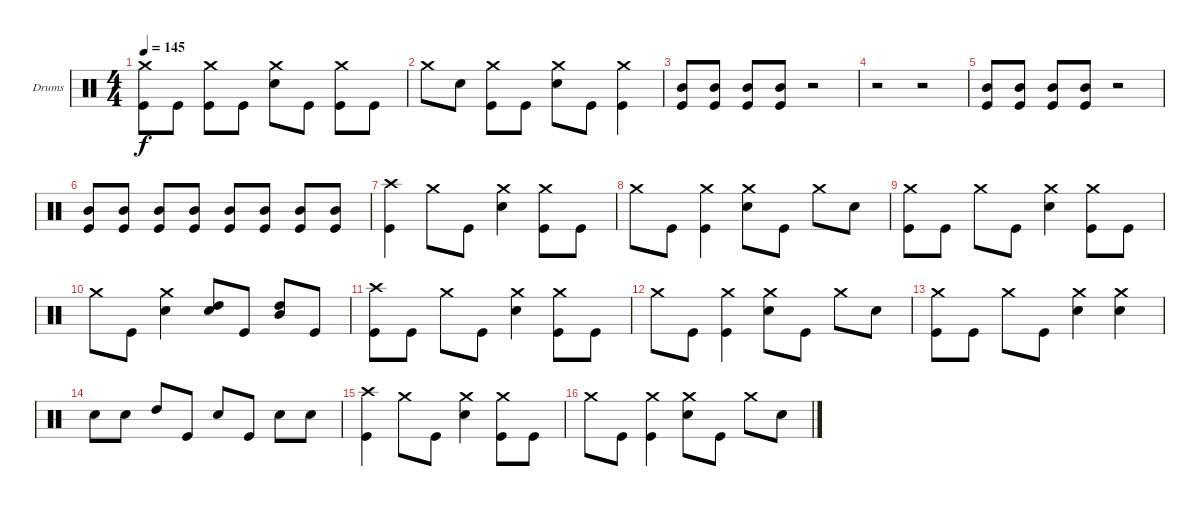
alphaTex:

\bracketExtendMode groupsimilarinstruments
\firstSystemTrackNameOrientation horizontal
\otherSystemsTrackNameOrientation horizontal
\track ("Drumkit" "Drums") {instrument percussion}
\staff {score}
\articulation defaults
\ts (4 4)
\tempo 145
\clef neutral
\ks c
("Kick (hit)" "Crash medium (hit)").8{dy f} "Kick (hit)".8 ("Kick (hit)" "Crash medium (hit)").8 "Kick (hit)".8 ("Snare (hit) 2" "Crash medium (hit)").8 "Kick (hit)".8 ("Kick (hit)" "Crash medium (hit)").8 "Kick (hit)".8 |
"Crash medium (hit)".8 "Snare (hit) 2".8 ("Crash medium (hit)" "Kick (hit)").8 "Kick (hit)".8 ("Crash medium (hit)" "Snare (hit) 2").8 "Kick (hit)".8 ("Crash medium (hit)" "Kick (hit)").4 |
("Mid Tom (hit)" "Kick (hit)").8 ("Mid Tom (hit)" "Kick (hit)").8 ("Mid Tom (hit)" "Kick (hit)").8 ("Mid Tom (hit)" "Kick (hit)").8 r.2 |
r.2 r.2 |
("Mid Tom (hit)" "Kick (hit)").8 ("Mid Tom (hit)" "Kick (hit)").8 ("Mid Tom (hit)" "Kick (hit)").8 ("Mid Tom (hit)" "Kick (hit)").8 r.2 |
("Mid Tom (hit)" "Kick (hit)").8 ("Mid Tom (hit)" "Kick (hit)").8 ("Mid Tom (hit)" "Kick (hit)").8 ("Mid Tom (hit)" "Kick (hit)").8 ("Mid Tom (hit)" "Kick (hit)").8 ("Mid Tom (hit)" "Kick (hit)").8 ("Mid Tom (hit)" "Kick (hit)").8 ("Mid Tom (hit)" "Kick (hit)").8 |
("Crash high (hit)" "Kick (hit)").4 "Crash medium (hit)".8 "Kick (hit)".8 ("Snare (hit) 2" "Crash medium (hit)").4 ("Kick (hit)" "Crash medium (hit)").8 "Kick (hit)".8 |
"Crash medium (hit)".8 "Kick (hit)".8 ("Kick (hit)" "Crash medium (hit)").4 ("Snare (hit) 2" "Crash medium (hit)").8 "Kick (hit)".8 "Crash medium (hit)".8 "Snare (hit) 2".8 |
("Kick (hit)" "Crash medium (hit)").8 "Kick (hit)".8 "Crash medium (hit)".8 "Kick (hit)".8 ("Snare (hit) 2" "Crash medium (hit)").4 ("Kick (hit)" "Crash medium (hit)").8 "Kick (hit)".8 |
"Crash medium (hit)".8 "Kick (hit)".8 ("Crash medium (hit)" "Snare (hit) 2").4 ("Snare (hit) 2" "High Tom (hit)").8 "Kick (hit)".8 ("High Tom (hit)" "Mid Tom (hit)").8 "Kick (hit)".8 |
("Crash high (hit)" "Kick (hit)").8 "Kick (hit)".8 "Crash medium (hit)".8 "Kick (hit)".8 ("Snare (hit) 2" "Crash medium (hit)").4 ("Kick (hit)" "Crash medium (hit)").8 "Kick (hit)".8 |
"Crash medium (hit)".8 "Kick (hit)".8 ("Kick (hit)" "Crash medium (hit)").4 ("Snare (hit) 2" "Crash medium (hit)").8 "Kick (hit)".8 "Crash medium (hit)".8 "Snare (hit) 2".8 |
("Kick (hit)" "Crash medium (hit)").8 "Kick (hit)".8 "Crash medium (hit)".8 "Kick (hit)".8 ("Snare (hit) 2" "Crash medium (hit)").4 ("Crash medium (hit)" "Snare (hit) 2").4 |
"Snare (hit) 2".8 "Snare (hit) 2".8 "High Tom (hit)".8 "Kick (hit)".8 "Snare (hit) 2".8 "Kick (hit)".8 "Snare (hit) 2".8 "Snare (hit) 2".8 |
("Crash high (hit)" "Kick (hit)").4 "Crash medium (hit)".8 "Kick (hit)".8 ("Snare (hit) 2" "Crash medium (hit)").4 ("Kick (hit)" "Crash medium (hit)").8 "Kick (hit)".8 |
"Crash medium (hit)".8 "Kick (hit)".8 ("Kick (hit)" "Crash medium (hit)").4 ("Snare (hit) 2" "Crash medium (hit)").8 "Kick (hit)".8 "Crash medium (hit)".8 "Snare (hit) 2".8
